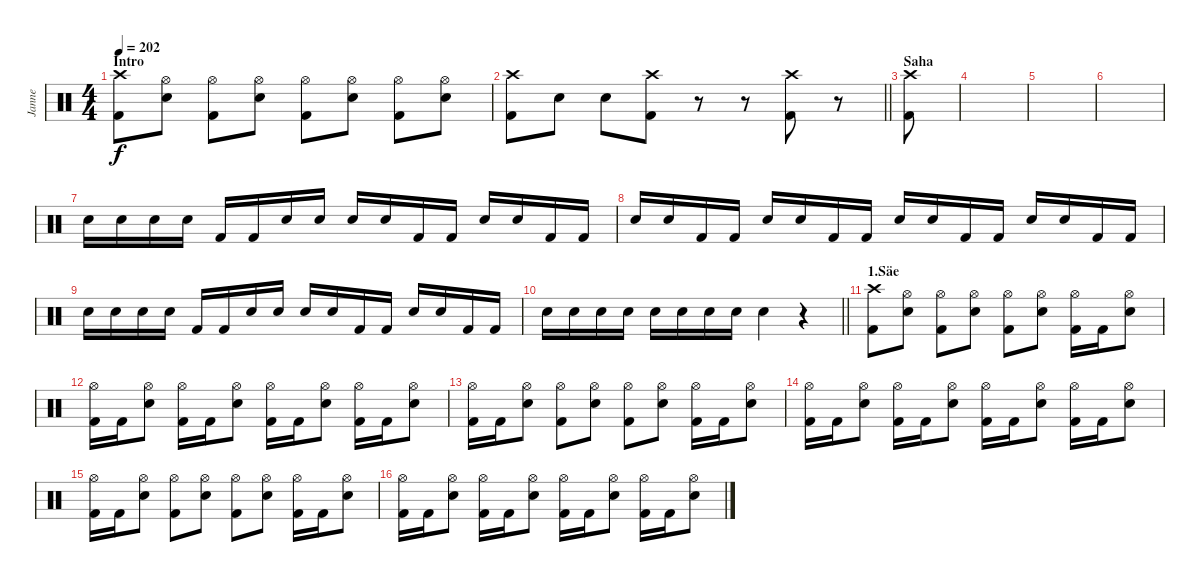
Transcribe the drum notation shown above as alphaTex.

\track ("Janne" "Janne") {instrument percussion}
\staff {score}
\articulation defaults
\ts (4 4)
\section ("" "Intro")
\tempo 202
\clef neutral
\ks c
("Crash high (hit)" "Kick (hit) 2").8{dy f} ("Hi-Hat (open)" "Electric Snare (hit)").8 ("Hi-Hat (open)" "Kick (hit) 2").8 ("Hi-Hat (open)" "Electric Snare (hit)").8 ("Hi-Hat (open)" "Kick (hit) 2").8 ("Hi-Hat (open)" "Electric Snare (hit)").8 ("Hi-Hat (open)" "Kick (hit) 2").8 ("Hi-Hat (open)" "Electric Snare (hit)").8 |
\barLineRight lightlight
("Crash high (hit)" "Kick (hit) 2").8 "Electric Snare (hit)".8 "Electric Snare (hit)".8 ("Crash high (hit)" "Kick (hit) 2").8 r.8 r.8 ("Crash high (hit)" "Kick (hit) 2").8 r.8 |
\section ("" "Saha")
("Crash high (hit)" "Kick (hit) 2").8 |
|
|
|
"Electric Snare (hit)".16 "Electric Snare (hit)".16 "Electric Snare (hit)".16 "Electric Snare (hit)".16 "Kick (hit) 2".16 "Kick (hit) 2".16 "Electric Snare (hit)".16 "Electric Snare (hit)".16 "Electric Snare (hit)".16 "Electric Snare (hit)".16 "Kick (hit) 2".16 "Kick (hit) 2".16 "Electric Snare (hit)".16 "Electric Snare (hit)".16 "Kick (hit) 2".16 "Kick (hit) 2".16 |
"Electric Snare (hit)".16 "Electric Snare (hit)".16 "Kick (hit) 2".16 "Kick (hit) 2".16 "Electric Snare (hit)".16 "Electric Snare (hit)".16 "Kick (hit) 2".16 "Kick (hit) 2".16 "Electric Snare (hit)".16 "Electric Snare (hit)".16 "Kick (hit) 2".16 "Kick (hit) 2".16 "Electric Snare (hit)".16 "Electric Snare (hit)".16 "Kick (hit) 2".16 "Kick (hit) 2".16 |
"Electric Snare (hit)".16 "Electric Snare (hit)".16 "Electric Snare (hit)".16 "Electric Snare (hit)".16 "Kick (hit) 2".16 "Kick (hit) 2".16 "Electric Snare (hit)".16 "Electric Snare (hit)".16 "Electric Snare (hit)".16 "Electric Snare (hit)".16 "Kick (hit) 2".16 "Kick (hit) 2".16 "Electric Snare (hit)".16 "Electric Snare (hit)".16 "Kick (hit) 2".16 "Kick (hit) 2".16 |
\barLineRight lightlight "Electric Snare (hit)".16 "Electric Snare (hit)".16 "Electric Snare (hit)".16 "Electric Snare (hit)".16 "Electric Snare (hit)".16 "Electric Snare (hit)".16 "Electric Snare (hit)".16 "Electric Snare (hit)".16 "Electric Snare (hit)".4
r.4 |
\section ("" "1.Säe")
("Crash high (hit)" "Kick (hit) 2").8 ("Hi-Hat (open)" "Electric Snare (hit)").8 ("Hi-Hat (open)" "Kick (hit) 2").8 ("Hi-Hat (open)" "Electric Snare (hit)").8 ("Hi-Hat (open)" "Kick (hit) 2").8 ("Hi-Hat (open)" "Electric Snare (hit)").8 ("Hi-Hat (open)" "Kick (hit) 2").16 "Kick (hit) 2".16 ("Hi-Hat (open)" "Electric Snare (hit)").8 |
("Hi-Hat (open)" "Kick (hit) 2").16 "Kick (hit) 2".16 ("Hi-Hat (open)" "Electric Snare (hit)").8 ("Hi-Hat (open)" "Kick (hit) 2").16 "Kick (hit) 2".16 ("Hi-Hat (open)" "Electric Snare (hit)").8 ("Hi-Hat (open)" "Kick (hit) 2").16 "Kick (hit) 2".16 ("Hi-Hat (open)" "Electric Snare (hit)").8 ("Hi-Hat (open)" "Kick (hit) 2").16 "Kick (hit) 2".16 ("Hi-Hat (open)" "Electric Snare (hit)").8 |
("Hi-Hat (open)" "Kick (hit) 2").16 "Kick (hit) 2".16 ("Hi-Hat (open)" "Electric Snare (hit)").8 ("Hi-Hat (open)" "Kick (hit) 2").8 ("Hi-Hat (open)" "Electric Snare (hit)").8 ("Hi-Hat (open)" "Kick (hit) 2").8 ("Hi-Hat (open)" "Electric Snare (hit)").8 ("Hi-Hat (open)" "Kick (hit) 2").16 "Kick (hit) 2".16 ("Hi-Hat (open)" "Electric Snare (hit)").8 |
("Hi-Hat (open)" "Kick (hit) 2").16 "Kick (hit) 2".16 ("Hi-Hat (open)" "Electric Snare (hit)").8 ("Hi-Hat (open)" "Kick (hit) 2").16 "Kick (hit) 2".16 ("Hi-Hat (open)" "Electric Snare (hit)").8 ("Hi-Hat (open)" "Kick (hit) 2").16 "Kick (hit) 2".16 ("Hi-Hat (open)" "Electric Snare (hit)").8 ("Hi-Hat (open)" "Kick (hit) 2").16 "Kick (hit) 2".16 ("Hi-Hat (open)" "Electric Snare (hit)").8 |
("Hi-Hat (open)" "Kick (hit) 2").16 "Kick (hit) 2".16 ("Hi-Hat (open)" "Electric Snare (hit)").8 ("Hi-Hat (open)" "Kick (hit) 2").8 ("Hi-Hat (open)" "Electric Snare (hit)").8 ("Hi-Hat (open)" "Kick (hit) 2").8 ("Hi-Hat (open)" "Electric Snare (hit)").8 ("Hi-Hat (open)" "Kick (hit) 2").16 "Kick (hit) 2".16 ("Hi-Hat (open)" "Electric Snare (hit)").8 |
("Hi-Hat (open)" "Kick (hit) 2").16 "Kick (hit) 2".16 ("Hi-Hat (open)" "Electric Snare (hit)").8 ("Hi-Hat (open)" "Kick (hit) 2").16 "Kick (hit) 2".16 ("Hi-Hat (open)" "Electric Snare (hit)").8 ("Hi-Hat (open)" "Kick (hit) 2").16 "Kick (hit) 2".16 ("Hi-Hat (open)" "Electric Snare (hit)").8 ("Hi-Hat (open)" "Kick (hit) 2").16 "Kick (hit) 2".16 ("Hi-Hat (open)" "Electric Snare (hit)").8
